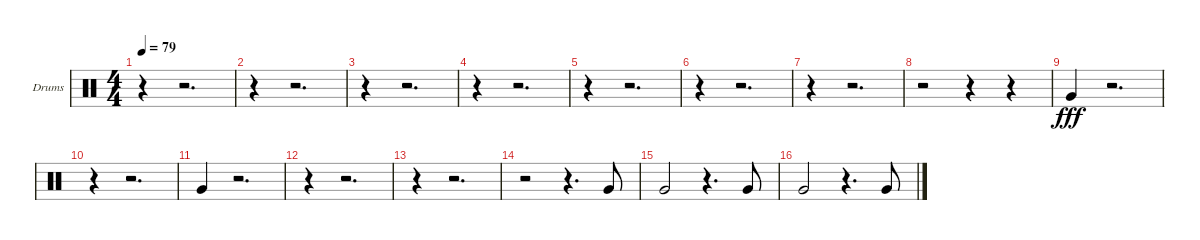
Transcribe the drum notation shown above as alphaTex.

\bracketExtendMode groupsimilarinstruments
\firstSystemTrackNameOrientation horizontal
\otherSystemsTrackNameOrientation horizontal
\track ("Drumkit" "Drums") {instrument percussion}
\staff {score}
\articulation defaults
\ts (4 4)
\beaming (8 2 2 2 2)
\tempo 79
\clef neutral
\ks c
r.4{dy fff} r.2{d} |
r.4 r.2{d} |
r.4 r.2{d} |
r.4 r.2{d} |
r.4 r.2{d} |
r.4 r.2{d} |
r.4 r.2{d} |
r.2 r.4 r.4 |
"Very Low Tom (hit)".4 r.2{d} |
r.4 r.2{d} |
"Very Low Tom (hit)".4 r.2{d} |
r.4 r.2{d} |
r.4 r.2{d} |
r.2 r.4{d} "Very Low Tom (hit)".8 |
"Very Low Tom (hit)".2 r.4{d} "Very Low Tom (hit)".8 |
"Very Low Tom (hit)".2 r.4{d} "Very Low Tom (hit)".8
